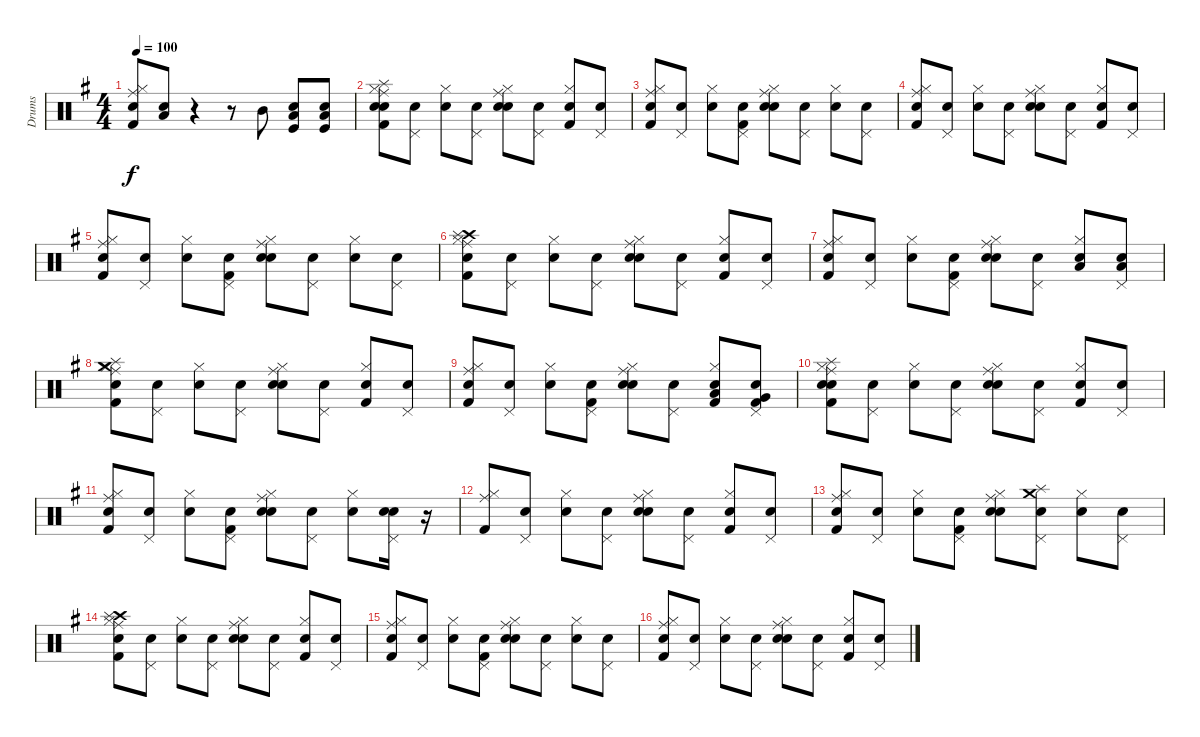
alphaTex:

\track ("Drums" "Drums") {instrument percussion}
\staff {score}
\articulation defaults
\ts (4 4)
\tempo 100
\clef neutral
\ks g
("Snare (hit)" "Ride (middle)" "Hi-Hat (closed)" "Kick (hit) 2").8{dy f} ("Snare (hit)" "Low Tom (hit)").8 r.4 r.8 "Mid Tom (hit)".8 ("Snare (hit)" "Kick (hit)" "Low Tom (hit)").8 ("Snare (hit)" "Kick (hit)" "Low Tom (hit)").8 |
("Snare (hit)" "Ride (middle)" "Hi-Hat (closed)" "Kick (hit) 2" "Snare (hit) 2" "Splash (hit)").8 ("Snare (hit)" "Pedal Hi-Hat (hit)").8 ("Snare (hit)" "Hi-Hat (closed)").8 ("Snare (hit)" "Pedal Hi-Hat (hit)").8 ("Snare (hit)" "Ride (middle)" "Hi-Hat (closed)" "Snare (hit) 2").8 ("Snare (hit)" "Pedal Hi-Hat (hit)").8 ("Snare (hit)" "Hi-Hat (closed)" "Kick (hit) 2").8 ("Snare (hit)" "Pedal Hi-Hat (hit)").8 |
("Snare (hit)" "Ride (middle)" "Hi-Hat (closed)" "Kick (hit) 2").8 ("Snare (hit)" "Pedal Hi-Hat (hit)").8 ("Snare (hit)" "Hi-Hat (closed)").8 ("Snare (hit)" "Pedal Hi-Hat (hit)" "Kick (hit) 2").8 ("Snare (hit)" "Ride (middle)" "Hi-Hat (closed)" "Snare (hit) 2").8 ("Snare (hit)" "Pedal Hi-Hat (hit)").8 ("Snare (hit)" "Hi-Hat (closed)").8 ("Snare (hit)" "Pedal Hi-Hat (hit)").8 |
("Snare (hit)" "Kick (hit) 2" "Ride (middle)" "Hi-Hat (closed)").8 ("Snare (hit)" "Pedal Hi-Hat (hit)").8 ("Snare (hit)" "Hi-Hat (closed)").8 ("Snare (hit)" "Pedal Hi-Hat (hit)").8 ("Snare (hit)" "Ride (middle)" "Hi-Hat (closed)" "Snare (hit) 2").8 ("Snare (hit)" "Pedal Hi-Hat (hit)").8 ("Snare (hit)" "Hi-Hat (closed)" "Kick (hit) 2").8 ("Snare (hit)" "Pedal Hi-Hat (hit)").8 |
("Snare (hit)" "Ride (middle)" "Hi-Hat (closed)" "Kick (hit) 2").8 ("Snare (hit)" "Pedal Hi-Hat (hit)").8 ("Snare (hit)" "Hi-Hat (closed)").8 ("Snare (hit)" "Pedal Hi-Hat (hit)" "Kick (hit) 2").8 ("Snare (hit)" "Ride (middle)" "Hi-Hat (closed)" "Snare (hit) 2").8 ("Snare (hit)" "Pedal Hi-Hat (hit)").8 ("Snare (hit)" "Hi-Hat (closed)").8 ("Snare (hit)" "Pedal Hi-Hat (hit)").8 |
("Snare (hit)" "Hi-Hat (closed)" "Ride (middle)" "Kick (hit) 2" "Crash high (hit)" "Splash (hit)").8 ("Snare (hit)" "Pedal Hi-Hat (hit)").8 ("Snare (hit)" "Hi-Hat (closed)").8 ("Snare (hit)" "Pedal Hi-Hat (hit)").8 ("Snare (hit)" "Ride (middle)" "Hi-Hat (closed)" "Snare (hit) 2").8 ("Snare (hit)" "Pedal Hi-Hat (hit)").8 ("Snare (hit)" "Hi-Hat (closed)" "Kick (hit) 2").8 ("Snare (hit)" "Pedal Hi-Hat (hit)").8 |
("Snare (hit)" "Ride (middle)" "Hi-Hat (closed)" "Kick (hit) 2").8 ("Snare (hit)" "Pedal Hi-Hat (hit)").8 ("Snare (hit)" "Hi-Hat (closed)").8 ("Snare (hit)" "Pedal Hi-Hat (hit)" "Kick (hit) 2").8 ("Snare (hit)" "Ride (middle)" "Hi-Hat (closed)" "Snare (hit) 2").8 ("Snare (hit)" "Pedal Hi-Hat (hit)").8 ("Snare (hit)" "Low Tom (hit)" "Hi-Hat (closed)").8 ("Snare (hit)" "Low Tom (hit)" "Pedal Hi-Hat (hit)").8 |
("Snare (hit)" "Crash medium (hit)" "Splash (hit)" "Kick (hit) 2" "Ride (middle)" "Hi-Hat (closed)").8 ("Snare (hit)" "Pedal Hi-Hat (hit)").8 ("Snare (hit)" "Hi-Hat (closed)").8 ("Snare (hit)" "Pedal Hi-Hat (hit)").8 ("Snare (hit)" "Ride (middle)" "Hi-Hat (closed)" "Snare (hit) 2").8 ("Snare (hit)" "Pedal Hi-Hat (hit)").8 ("Snare (hit)" "Hi-Hat (closed)" "Kick (hit) 2").8 ("Snare (hit)" "Pedal Hi-Hat (hit)").8 |
("Snare (hit)" "Ride (middle)" "Hi-Hat (closed)" "Kick (hit) 2").8 ("Snare (hit)" "Pedal Hi-Hat (hit)").8 ("Snare (hit)" "Hi-Hat (closed)").8 ("Snare (hit)" "Pedal Hi-Hat (hit)" "Kick (hit) 2").8 ("Snare (hit)" "Ride (middle)" "Hi-Hat (closed)" "Snare (hit) 2").8 ("Snare (hit)" "Pedal Hi-Hat (hit)").8 ("Snare (hit)" "Kick (hit) 2" "Low Tom (hit)" "Hi-Hat (closed)").8 ("Snare (hit)" "Very Low Tom (hit)" "Kick (hit) 2" "Pedal Hi-Hat (hit)").8 |
("Snare (hit)" "Ride (middle)" "Hi-Hat (closed)" "Kick (hit) 2" "Snare (hit) 2" "Splash (hit)").8 ("Snare (hit)" "Pedal Hi-Hat (hit)").8 ("Snare (hit)" "Hi-Hat (closed)").8 ("Snare (hit)" "Pedal Hi-Hat (hit)").8 ("Snare (hit)" "Ride (middle)" "Hi-Hat (closed)" "Snare (hit) 2").8 ("Snare (hit)" "Pedal Hi-Hat (hit)").8 ("Snare (hit)" "Hi-Hat (closed)" "Kick (hit) 2").8 ("Snare (hit)" "Pedal Hi-Hat (hit)").8 |
("Snare (hit)" "Ride (middle)" "Hi-Hat (closed)" "Kick (hit) 2").8 ("Snare (hit)" "Pedal Hi-Hat (hit)").8 ("Snare (hit)" "Hi-Hat (closed)").8 ("Snare (hit)" "Pedal Hi-Hat (hit)" "Kick (hit) 2").8 ("Snare (hit)" "Ride (middle)" "Hi-Hat (closed)" "Snare (hit) 2").8 ("Snare (hit)" "Pedal Hi-Hat (hit)").8 ("Snare (hit)" "Hi-Hat (closed)").8 ("Snare (hit)" "Snare (hit) 2" "Pedal Hi-Hat (hit)").16 r.16 |
("Kick (hit) 2" "Ride (middle)" "Hi-Hat (closed)").8 ("Snare (hit)" "Pedal Hi-Hat (hit)").8 ("Snare (hit)" "Hi-Hat (closed)").8 ("Snare (hit)" "Pedal Hi-Hat (hit)").8 ("Snare (hit)" "Ride (middle)" "Hi-Hat (closed)" "Snare (hit) 2").8 ("Snare (hit)" "Pedal Hi-Hat (hit)").8 ("Snare (hit)" "Hi-Hat (closed)" "Kick (hit) 2").8 ("Snare (hit)" "Pedal Hi-Hat (hit)").8 |
("Snare (hit)" "Ride (middle)" "Hi-Hat (closed)" "Kick (hit) 2").8 ("Snare (hit)" "Pedal Hi-Hat (hit)").8 ("Snare (hit)" "Hi-Hat (closed)").8 ("Snare (hit)" "Pedal Hi-Hat (hit)" "Kick (hit) 2").8 ("Snare (hit)" "Ride (middle)" "Hi-Hat (closed)" "Snare (hit) 2").8 ("Snare (hit)" "Splash (hit)" "Crash medium (hit)" "Pedal Hi-Hat (hit)").8 ("Snare (hit)" "Hi-Hat (closed)").8 ("Snare (hit)" "Pedal Hi-Hat (hit)").8 |
("Snare (hit)" "Hi-Hat (closed)" "Ride (middle)" "Kick (hit) 2" "Crash high (hit)" "Splash (hit)").8 ("Snare (hit)" "Pedal Hi-Hat (hit)").8 ("Snare (hit)" "Hi-Hat (closed)").8 ("Snare (hit)" "Pedal Hi-Hat (hit)").8 ("Snare (hit)" "Ride (middle)" "Hi-Hat (closed)" "Snare (hit) 2").8 ("Snare (hit)" "Pedal Hi-Hat (hit)").8 ("Snare (hit)" "Hi-Hat (closed)" "Kick (hit) 2").8 ("Snare (hit)" "Pedal Hi-Hat (hit)").8 |
("Snare (hit)" "Ride (middle)" "Hi-Hat (closed)" "Kick (hit) 2").8 ("Snare (hit)" "Pedal Hi-Hat (hit)").8 ("Snare (hit)" "Hi-Hat (closed)").8 ("Snare (hit)" "Pedal Hi-Hat (hit)" "Kick (hit) 2").8 ("Snare (hit)" "Ride (middle)" "Hi-Hat (closed)" "Snare (hit) 2").8 ("Snare (hit)" "Pedal Hi-Hat (hit)").8 ("Snare (hit)" "Hi-Hat (closed)").8 ("Snare (hit)" "Pedal Hi-Hat (hit)").8 |
("Snare (hit)" "Kick (hit) 2" "Ride (middle)" "Hi-Hat (closed)").8 ("Snare (hit)" "Pedal Hi-Hat (hit)").8 ("Snare (hit)" "Hi-Hat (closed)").8 ("Snare (hit)" "Pedal Hi-Hat (hit)").8 ("Snare (hit)" "Ride (middle)" "Hi-Hat (closed)" "Snare (hit) 2").8 ("Snare (hit)" "Pedal Hi-Hat (hit)").8 ("Snare (hit)" "Hi-Hat (closed)" "Kick (hit) 2").8 ("Snare (hit)" "Pedal Hi-Hat (hit)").8
